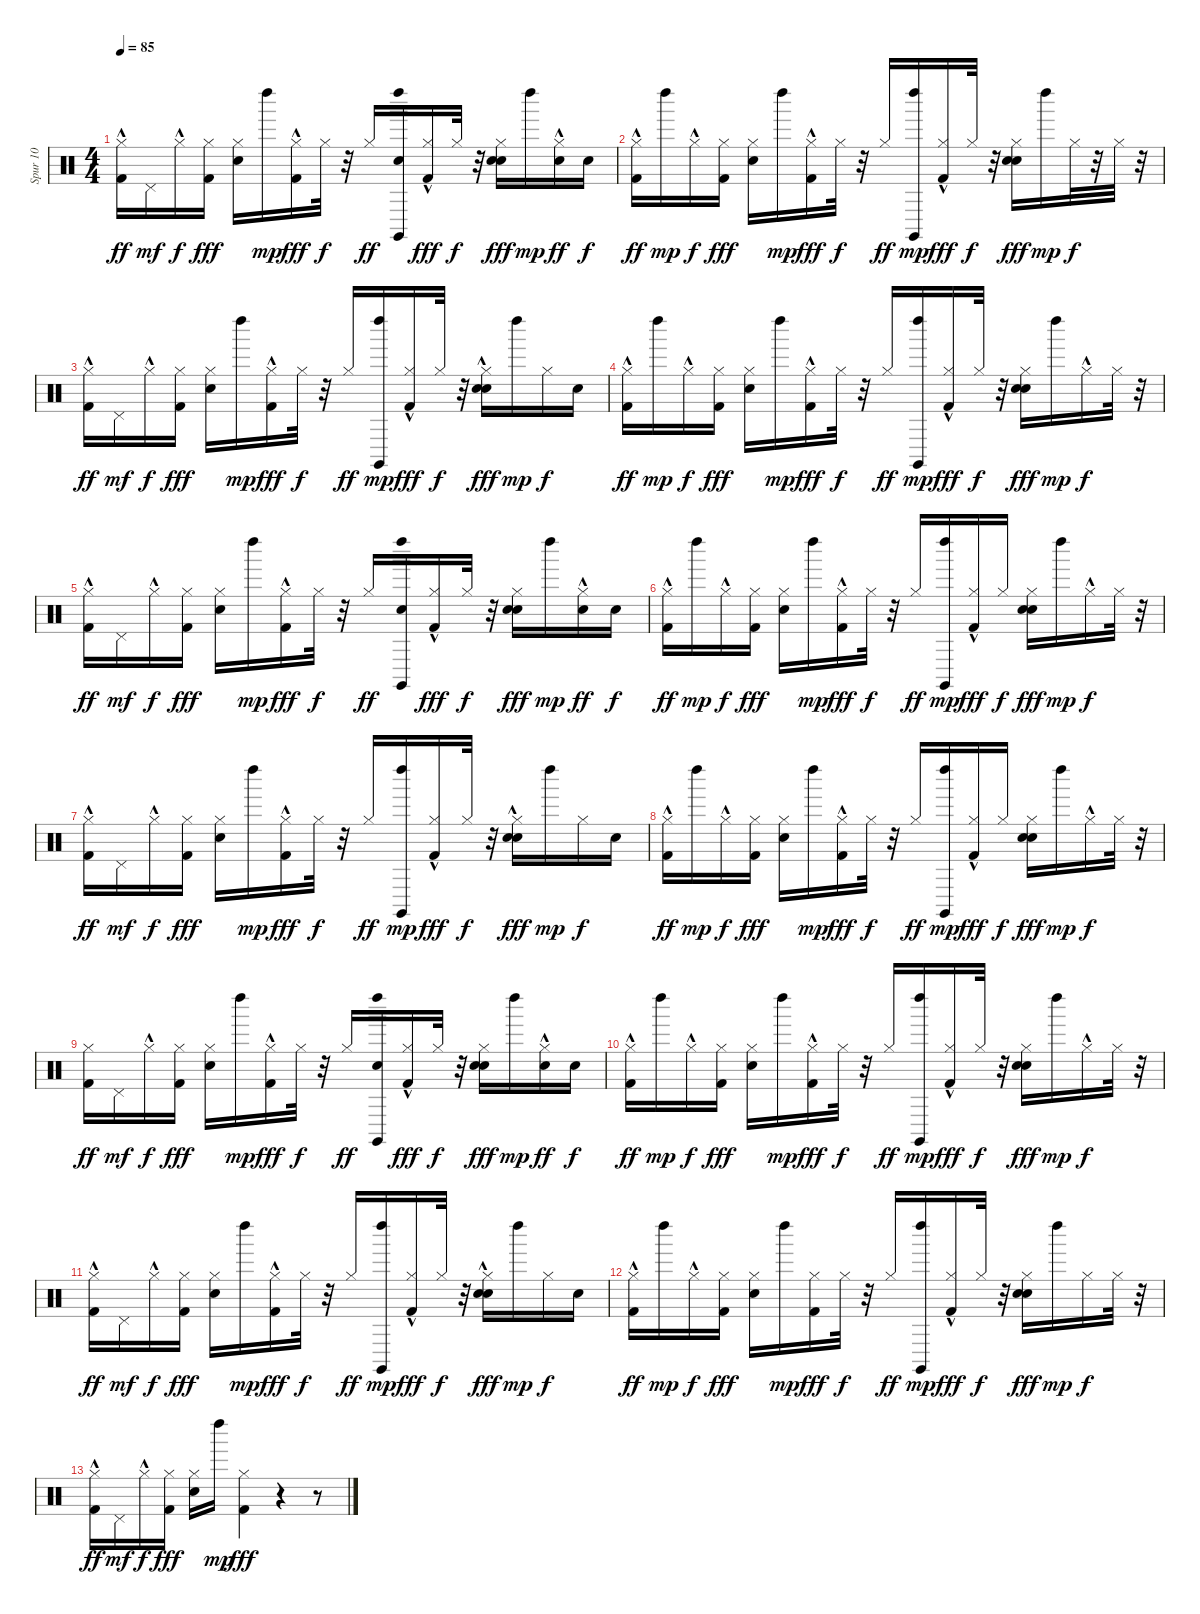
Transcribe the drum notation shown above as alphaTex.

\track ("Spur 10" "Spur 10") {instrument percussion}
\staff {score}
\articulation defaults
\ts (4 4)
\tempo 85
\clef neutral
\ks c
("Kick (hit) 2"{hac} "Hi-Hat (closed)").16{dy ff} "Pedal Hi-Hat (hit)".16{dy mf} "Hi-Hat (closed)"{hac}.16{dy f} ("Kick (hit) 2" "Hi-Hat (closed)").16{dy fff} ("Hi-Hat (closed)" "Snare (hit) 2").16 "Left Maraca (hit)".16{dy mp} ("Kick (hit) 2" "Hi-Hat (closed)"{hac}).16{dy fff} "Hi-Hat (closed)".32{dy f} r.32 "Hi-Hat (closed)".16{dy ff} ("Left Maraca (hit)" "Claves (hit)" "Snare (hit) 2").16 ("Kick (hit) 2" "Hi-Hat (closed)"{hac}).16{dy fff} "Hi-Hat (closed)".32{dy f} r.32 ("Hi-Hat (closed)" "Snare (hit) 2" "Hand Clap (hit)").16{dy fff} "Left Maraca (hit)".16{dy mp} ("Hi-Hat (closed)" "Snare (hit) 2"{hac}).16{dy ff} "Snare (hit) 2".16{dy f} |
("Kick (hit) 2"{hac} "Hi-Hat (closed)").16{dy ff} "Left Maraca (hit)".16{dy mp} "Hi-Hat (closed)"{hac}.16{dy f} ("Kick (hit) 2" "Hi-Hat (closed)").16{dy fff} ("Hi-Hat (closed)" "Snare (hit) 2").16 "Left Maraca (hit)".16{dy mp} ("Kick (hit) 2" "Hi-Hat (closed)"{hac}).16{dy fff} "Hi-Hat (closed)".32{dy f} r.32 "Hi-Hat (closed)".16{dy ff} ("Left Maraca (hit)" "Claves (hit)").16{dy mp} ("Kick (hit) 2"{hac} "Hi-Hat (closed)"{hac}).16{dy fff} "Hi-Hat (closed)".32{dy f} r.32 ("Hi-Hat (closed)" "Snare (hit) 2" "Hand Clap (hit)").16{dy fff} "Left Maraca (hit)".16{dy mp} "Hi-Hat (closed)".32{dy f} r.32 "Hi-Hat (closed)".32 r.32 |
("Kick (hit) 2"{hac} "Hi-Hat (closed)").16{dy ff} "Pedal Hi-Hat (hit)".16{dy mf} "Hi-Hat (closed)"{hac}.16{dy f} ("Kick (hit) 2" "Hi-Hat (closed)").16{dy fff} ("Hi-Hat (closed)" "Snare (hit) 2").16 "Left Maraca (hit)".16{dy mp} ("Kick (hit) 2" "Hi-Hat (closed)"{hac}).16{dy fff} "Hi-Hat (closed)".32{dy f} r.32 "Hi-Hat (closed)".16{dy ff} ("Left Maraca (hit)" "Claves (hit)").16{dy mp} ("Kick (hit) 2"{hac} "Hi-Hat (closed)"{hac}).16{dy fff} "Hi-Hat (closed)".32{dy f} r.32 ("Hi-Hat (closed)" "Snare (hit) 2"{hac} "Hand Clap (hit)").16{dy fff} "Left Maraca (hit)".16{dy mp} "Hi-Hat (closed)".16{dy f} "Snare (hit) 2".16 |
("Kick (hit) 2"{hac} "Hi-Hat (closed)").16{dy ff} "Left Maraca (hit)".16{dy mp} "Hi-Hat (closed)"{hac}.16{dy f} ("Kick (hit) 2" "Hi-Hat (closed)").16{dy fff} ("Hi-Hat (closed)" "Snare (hit) 2").16 "Left Maraca (hit)".16{dy mp} ("Kick (hit) 2" "Hi-Hat (closed)"{hac}).16{dy fff} "Hi-Hat (closed)".32{dy f} r.32 "Hi-Hat (closed)".16{dy ff} ("Left Maraca (hit)" "Claves (hit)").16{dy mp} ("Kick (hit) 2"{hac} "Hi-Hat (closed)"{hac}).16{dy fff} "Hi-Hat (closed)".32{dy f} r.32 ("Hi-Hat (closed)" "Snare (hit) 2" "Hand Clap (hit)").16{dy fff} "Left Maraca (hit)".16{dy mp} "Hi-Hat (closed)"{hac}.16{dy f} "Hi-Hat (closed)".32 r.32 |
("Kick (hit) 2"{hac} "Hi-Hat (closed)").16{dy ff} "Pedal Hi-Hat (hit)".16{dy mf} "Hi-Hat (closed)"{hac}.16{dy f} ("Kick (hit) 2" "Hi-Hat (closed)").16{dy fff} ("Hi-Hat (closed)" "Snare (hit) 2").16 "Left Maraca (hit)".16{dy mp} ("Kick (hit) 2" "Hi-Hat (closed)"{hac}).16{dy fff} "Hi-Hat (closed)".32{dy f} r.32 "Hi-Hat (closed)".16{dy ff} ("Left Maraca (hit)" "Claves (hit)" "Snare (hit) 2").16 ("Kick (hit) 2"{hac} "Hi-Hat (closed)"{hac}).16{dy fff} "Hi-Hat (closed)".32{dy f} r.32 ("Hi-Hat (closed)" "Snare (hit) 2" "Hand Clap (hit)").16{dy fff} "Left Maraca (hit)".16{dy mp} ("Hi-Hat (closed)" "Snare (hit) 2"{hac}).16{dy ff} "Snare (hit) 2".16{dy f} |
("Kick (hit) 2"{hac} "Hi-Hat (closed)").16{dy ff} "Left Maraca (hit)".16{dy mp} "Hi-Hat (closed)"{hac}.16{dy f} ("Kick (hit) 2" "Hi-Hat (closed)").16{dy fff} ("Hi-Hat (closed)" "Snare (hit) 2").16 "Left Maraca (hit)".16{dy mp} ("Kick (hit) 2" "Hi-Hat (closed)"{hac}).16{dy fff} "Hi-Hat (closed)".32{dy f} r.32 "Hi-Hat (closed)".16{dy ff} ("Left Maraca (hit)" "Claves (hit)").16{dy mp} ("Kick (hit) 2"{hac} "Hi-Hat (closed)"{hac}).16{dy fff} "Hi-Hat (closed)".16{dy f} ("Hi-Hat (closed)" "Snare (hit) 2" "Hand Clap (hit)").16{dy fff} "Left Maraca (hit)".16{dy mp} "Hi-Hat (closed)"{hac}.16{dy f} "Hi-Hat (closed)".32 r.32 |
("Kick (hit) 2"{hac} "Hi-Hat (closed)").16{dy ff} "Pedal Hi-Hat (hit)".16{dy mf} "Hi-Hat (closed)"{hac}.16{dy f} ("Kick (hit) 2" "Hi-Hat (closed)").16{dy fff} ("Hi-Hat (closed)" "Snare (hit) 2").16 "Left Maraca (hit)".16{dy mp} ("Kick (hit) 2" "Hi-Hat (closed)"{hac}).16{dy fff} "Hi-Hat (closed)".32{dy f} r.32 "Hi-Hat (closed)".16{dy ff} ("Left Maraca (hit)" "Claves (hit)").16{dy mp} ("Kick (hit) 2"{hac} "Hi-Hat (closed)"{hac}).16{dy fff} "Hi-Hat (closed)".32{dy f} r.32 ("Hi-Hat (closed)" "Snare (hit) 2"{hac} "Hand Clap (hit)").16{dy fff} "Left Maraca (hit)".16{dy mp} "Hi-Hat (closed)".16{dy f} "Snare (hit) 2".16 |
("Kick (hit) 2"{hac} "Hi-Hat (closed)").16{dy ff} "Left Maraca (hit)".16{dy mp} "Hi-Hat (closed)"{hac}.16{dy f} ("Kick (hit) 2" "Hi-Hat (closed)").16{dy fff} ("Hi-Hat (closed)" "Snare (hit) 2").16 "Left Maraca (hit)".16{dy mp} ("Kick (hit) 2" "Hi-Hat (closed)"{hac}).16{dy fff} "Hi-Hat (closed)".32{dy f} r.32 "Hi-Hat (closed)".16{dy ff} ("Left Maraca (hit)" "Claves (hit)").16{dy mp} ("Kick (hit) 2"{hac} "Hi-Hat (closed)"{hac}).16{dy fff} "Hi-Hat (closed)".16{dy f} ("Hi-Hat (closed)" "Snare (hit) 2" "Hand Clap (hit)").16{dy fff} "Left Maraca (hit)".16{dy mp} "Hi-Hat (closed)"{hac}.16{dy f} "Hi-Hat (closed)".32 r.32 |
("Kick (hit) 2" "Hi-Hat (closed)").16{dy ff} "Pedal Hi-Hat (hit)".16{dy mf} "Hi-Hat (closed)"{hac}.16{dy f} ("Kick (hit) 2" "Hi-Hat (closed)").16{dy fff} ("Hi-Hat (closed)" "Snare (hit) 2").16 "Left Maraca (hit)".16{dy mp} ("Kick (hit) 2" "Hi-Hat (closed)"{hac}).16{dy fff} "Hi-Hat (closed)".32{dy f} r.32 "Hi-Hat (closed)".16{dy ff} ("Left Maraca (hit)" "Claves (hit)" "Snare (hit) 2").16 ("Kick (hit) 2"{hac} "Hi-Hat (closed)"{hac}).16{dy fff} "Hi-Hat (closed)".32{dy f} r.32 ("Hi-Hat (closed)" "Snare (hit) 2" "Hand Clap (hit)").16{dy fff} "Left Maraca (hit)".16{dy mp} ("Hi-Hat (closed)" "Snare (hit) 2"{hac}).16{dy ff} "Snare (hit) 2".16{dy f} |
("Kick (hit) 2"{hac} "Hi-Hat (closed)").16{dy ff} "Left Maraca (hit)".16{dy mp} "Hi-Hat (closed)"{hac}.16{dy f} ("Kick (hit) 2" "Hi-Hat (closed)").16{dy fff} ("Hi-Hat (closed)" "Snare (hit) 2").16 "Left Maraca (hit)".16{dy mp} ("Kick (hit) 2" "Hi-Hat (closed)"{hac}).16{dy fff} "Hi-Hat (closed)".32{dy f} r.32 "Hi-Hat (closed)".16{dy ff} ("Left Maraca (hit)" "Claves (hit)").16{dy mp} ("Kick (hit) 2"{hac} "Hi-Hat (closed)"{hac}).16{dy fff} "Hi-Hat (closed)".32{dy f} r.32 ("Hi-Hat (closed)" "Snare (hit) 2" "Hand Clap (hit)").16{dy fff} "Left Maraca (hit)".16{dy mp} "Hi-Hat (closed)"{hac}.16{dy f} "Hi-Hat (closed)".32 r.32 |
("Kick (hit) 2"{hac} "Hi-Hat (closed)").16{dy ff} "Pedal Hi-Hat (hit)".16{dy mf} "Hi-Hat (closed)"{hac}.16{dy f} ("Kick (hit) 2" "Hi-Hat (closed)").16{dy fff} ("Hi-Hat (closed)" "Snare (hit) 2").16 "Left Maraca (hit)".16{dy mp} ("Kick (hit) 2" "Hi-Hat (closed)"{hac}).16{dy fff} "Hi-Hat (closed)".32{dy f} r.32 "Hi-Hat (closed)".16{dy ff} ("Left Maraca (hit)" "Claves (hit)").16{dy mp} ("Kick (hit) 2"{hac} "Hi-Hat (closed)"{hac}).16{dy fff} "Hi-Hat (closed)".32{dy f} r.32 ("Hi-Hat (closed)" "Snare (hit) 2"{hac} "Hand Clap (hit)").16{dy fff} "Left Maraca (hit)".16{dy mp} "Hi-Hat (closed)".16{dy f} "Snare (hit) 2".16 |
("Kick (hit) 2"{hac} "Hi-Hat (closed)").16{dy ff} "Left Maraca (hit)".16{dy mp} "Hi-Hat (closed)"{hac}.16{dy f} ("Kick (hit) 2" "Hi-Hat (closed)").16{dy fff} ("Hi-Hat (closed)" "Snare (hit) 2").16 "Left Maraca (hit)".16{dy mp} ("Kick (hit) 2" "Hi-Hat (closed)").16{dy fff} "Hi-Hat (closed)".32{dy f} r.32 "Hi-Hat (closed)".16{dy ff} ("Left Maraca (hit)" "Claves (hit)").16{dy mp} ("Kick (hit) 2"{hac} "Hi-Hat (closed)"{hac}).16{dy fff} "Hi-Hat (closed)".32{dy f} r.32 ("Hi-Hat (closed)" "Snare (hit) 2" "Hand Clap (hit)").16{dy fff} "Left Maraca (hit)".16{dy mp} "Hi-Hat (closed)".16{dy f} "Hi-Hat (closed)".32 r.32 |
("Kick (hit) 2"{hac} "Hi-Hat (closed)").16{dy ff} "Pedal Hi-Hat (hit)".16{dy mf} "Hi-Hat (closed)"{hac}.16{dy f} ("Kick (hit) 2" "Hi-Hat (closed)").16{dy fff} ("Hi-Hat (closed)" "Snare (hit) 2").16 "Left Maraca (hit)".16{dy mp} ("Kick (hit) 2" "Hi-Hat (closed)").4{dy fff} r.4 r.8
